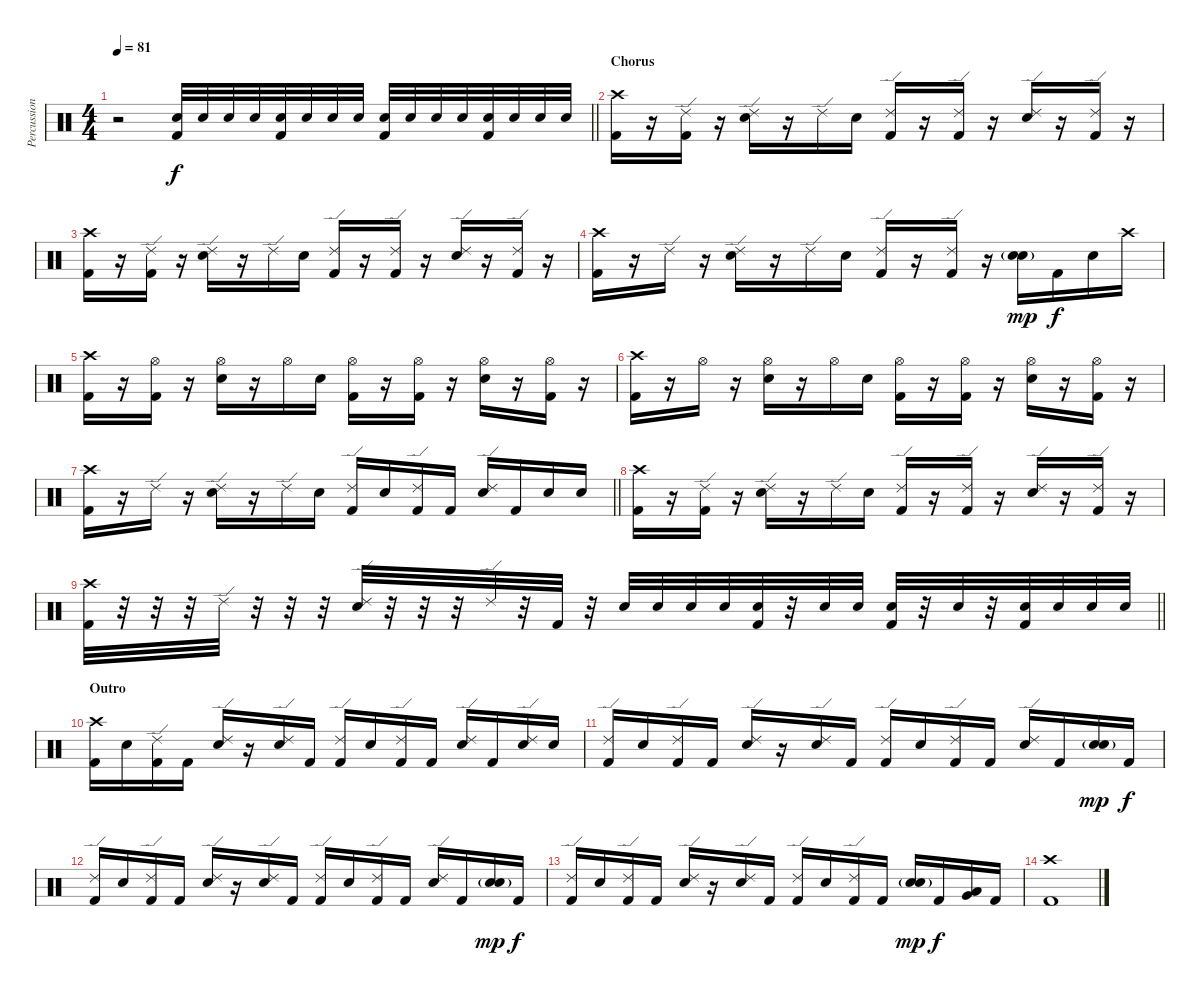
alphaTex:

\track ("Percussion" "Percussion") {instrument percussion}
\staff {score}
\articulation defaults
\ts (4 4)
\tempo 81
\clef neutral
\barLineRight lightlight
\ks c
r.2{dy f} ("Snare (hit) 2" "Kick (hit) 2").32 "Snare (hit) 2".32 "Snare (hit) 2".32 "Snare (hit) 2".32 ("Snare (hit) 2" "Kick (hit) 2").32 "Snare (hit) 2".32 "Snare (hit) 2".32 "Snare (hit) 2".32 ("Snare (hit) 2" "Kick (hit) 2").32 "Snare (hit) 2".32 "Snare (hit) 2".32 "Snare (hit) 2".32 ("Snare (hit) 2" "Kick (hit) 2").32 "Snare (hit) 2".32 "Snare (hit) 2".32 "Snare (hit) 2".32 |
\section ("" "Chorus")
("Crash high (hit)" "Kick (hit) 2").16 r.16 ("Ride (edge) 2" "Kick (hit) 2").16 r.16 ("Ride (edge) 2" "Snare (hit) 2").16 r.16 "Ride (edge) 2".16 "Snare (hit) 2".16 ("Ride (edge) 2" "Kick (hit) 2").16 r.16 ("Ride (edge) 2" "Kick (hit) 2").16 r.16 ("Ride (edge) 2" "Snare (hit) 2").16 r.16 ("Ride (edge) 2" "Kick (hit) 2").16 r.16 |
("Crash high (hit)" "Kick (hit) 2").16 r.16 ("Ride (edge) 2" "Kick (hit) 2").16 r.16 ("Ride (edge) 2" "Snare (hit) 2").16 r.16 "Ride (edge) 2".16 "Snare (hit) 2".16 ("Ride (edge) 2" "Kick (hit) 2").16 r.16 ("Ride (edge) 2" "Kick (hit) 2").16 r.16 ("Ride (edge) 2" "Snare (hit) 2").16 r.16 ("Ride (edge) 2" "Kick (hit) 2").16 r.16 |
("Crash high (hit)" "Kick (hit) 2").16 r.16 "Ride (edge) 2".16 r.16 ("Ride (edge) 2" "Snare (hit) 2").16 r.16 "Ride (edge) 2".16 "Snare (hit) 2".16 ("Ride (edge) 2" "Kick (hit) 2").16 r.16 ("Ride (edge) 2" "Kick (hit) 2").16 r.16 ("Snare (hit) 2"{g} "Snare (hit) 2").16{dy mp} "Kick (hit) 2".16{dy f} "Snare (hit) 2".16 "Crash high (hit)".16 |
("Crash high (hit)" "Kick (hit) 2").16 r.16 ("Hi-Hat (open)" "Kick (hit) 2").16 r.16 ("Hi-Hat (open)" "Snare (hit) 2").16 r.16 "Hi-Hat (open)".16 "Snare (hit) 2".16 ("Hi-Hat (open)" "Kick (hit) 2").16 r.16 ("Hi-Hat (open)" "Kick (hit) 2").16 r.16 ("Hi-Hat (open)" "Snare (hit) 2").16 r.16 ("Hi-Hat (open)" "Kick (hit) 2").16 r.16 |
("Crash high (hit)" "Kick (hit) 2").16 r.16 "Hi-Hat (open)".16 r.16 ("Hi-Hat (open)" "Snare (hit) 2").16 r.16 "Hi-Hat (open)".16 "Snare (hit) 2".16 ("Hi-Hat (open)" "Kick (hit) 2").16 r.16 ("Hi-Hat (open)" "Kick (hit) 2").16 r.16 ("Hi-Hat (open)" "Snare (hit) 2").16 r.16 ("Hi-Hat (open)" "Kick (hit) 2").16 r.16 |
\barLineRight lightlight
("Crash high (hit)" "Kick (hit) 2").16 r.16 "Ride (edge) 2".16 r.16 ("Ride (edge) 2" "Snare (hit) 2").16 r.16 "Ride (edge) 2".16 "Snare (hit) 2".16 ("Ride (edge) 2" "Kick (hit) 2").16 "Snare (hit) 2".16 ("Ride (edge) 2" "Kick (hit) 2").16 "Kick (hit) 2".16 ("Ride (edge) 2" "Snare (hit) 2").16 "Kick (hit) 2".16 "Snare (hit) 2".16 "Snare (hit) 2".16 |
("Crash high (hit)" "Kick (hit) 2").16 r.16 ("Ride (edge) 2" "Kick (hit) 2").16 r.16 ("Ride (edge) 2" "Snare (hit) 2").16 r.16 "Ride (edge) 2".16 "Snare (hit) 2".16 ("Ride (edge) 2" "Kick (hit) 2").16 r.16 ("Ride (edge) 2" "Kick (hit) 2").16 r.16 ("Ride (edge) 2" "Snare (hit) 2").16 r.16 ("Ride (edge) 2" "Kick (hit) 2").16 r.16 |
\barLineRight lightlight
("Crash high (hit)" "Kick (hit) 2").32 r.32 r.32 r.32 "Ride (edge) 2".32 r.32 r.32 r.32 ("Ride (edge) 2" "Snare (hit) 2").32 r.32 r.32 r.32 "Ride (edge) 2".32 r.32 "Kick (hit) 2".32 r.32 "Snare (hit) 2".32 "Snare (hit) 2".32 "Snare (hit) 2".32 "Snare (hit) 2".32 ("Snare (hit) 2" "Kick (hit) 2").32 r.32 "Snare (hit) 2".32 "Snare (hit) 2".32 ("Snare (hit) 2" "Kick (hit) 2").32 r.32 "Snare (hit) 2".32 r.32 ("Snare (hit) 2" "Kick (hit) 2").32 "Snare (hit) 2".32 "Snare (hit) 2".32 "Snare (hit) 2".32 |
\section ("" "Outro")
("Crash high (hit)" "Kick (hit) 2").16 "Snare (hit) 2".16 ("Ride (edge) 2" "Kick (hit) 2").16 "Kick (hit) 2".16 ("Ride (edge) 2" "Snare (hit) 2").16 r.16 ("Ride (edge) 2" "Snare (hit) 2").16 "Kick (hit) 2".16 ("Ride (edge) 2" "Kick (hit) 2").16 "Snare (hit) 2".16 ("Ride (edge) 2" "Kick (hit) 2").16 "Kick (hit) 2".16 ("Ride (edge) 2" "Snare (hit) 2").16 "Kick (hit) 2".16 ("Ride (edge) 2" "Snare (hit) 2").16 "Snare (hit) 2".16 |
("Ride (edge) 2" "Kick (hit) 2").16 "Snare (hit) 2".16 ("Ride (edge) 2" "Kick (hit) 2").16 "Kick (hit) 2".16 ("Ride (edge) 2" "Snare (hit) 2").16 r.16 ("Ride (edge) 2" "Snare (hit) 2").16 "Kick (hit) 2".16 ("Ride (edge) 2" "Kick (hit) 2").16 "Snare (hit) 2".16 ("Ride (edge) 2" "Kick (hit) 2").16 "Kick (hit) 2".16 ("Ride (edge) 2" "Snare (hit) 2").16 "Kick (hit) 2".16 ("Snare (hit) 2"{g} "Snare (hit) 2").16{dy mp} "Kick (hit) 2".16{dy f} |
("Ride (edge) 2" "Kick (hit) 2").16 "Snare (hit) 2".16 ("Ride (edge) 2" "Kick (hit) 2").16 "Kick (hit) 2".16 ("Ride (edge) 2" "Snare (hit) 2").16 r.16 ("Ride (edge) 2" "Snare (hit) 2").16 "Kick (hit) 2".16 ("Ride (edge) 2" "Kick (hit) 2").16 "Snare (hit) 2".16 ("Ride (edge) 2" "Kick (hit) 2").16 "Kick (hit) 2".16 ("Ride (edge) 2" "Snare (hit) 2").16 "Kick (hit) 2".16 ("Snare (hit) 2"{g} "Snare (hit) 2").16{dy mp} "Kick (hit) 2".16{dy f} |
("Ride (edge) 2" "Kick (hit) 2").16 "Snare (hit) 2".16 ("Ride (edge) 2" "Kick (hit) 2").16 "Kick (hit) 2".16 ("Ride (edge) 2" "Snare (hit) 2").16 r.16 ("Ride (edge) 2" "Snare (hit) 2").16 "Kick (hit) 2".16 ("Ride (edge) 2" "Kick (hit) 2").16 "Snare (hit) 2".16 ("Ride (edge) 2" "Kick (hit) 2").16 "Kick (hit) 2".16 ("Snare (hit) 2"{g} "Snare (hit) 2").16{dy mp} "Kick (hit) 2".16{dy f} ("Very Low Tom (hit)" "Low Floor Tom (hit)").16 "Kick (hit) 2".16 |
("Crash high (hit)" "Kick (hit) 2").1
